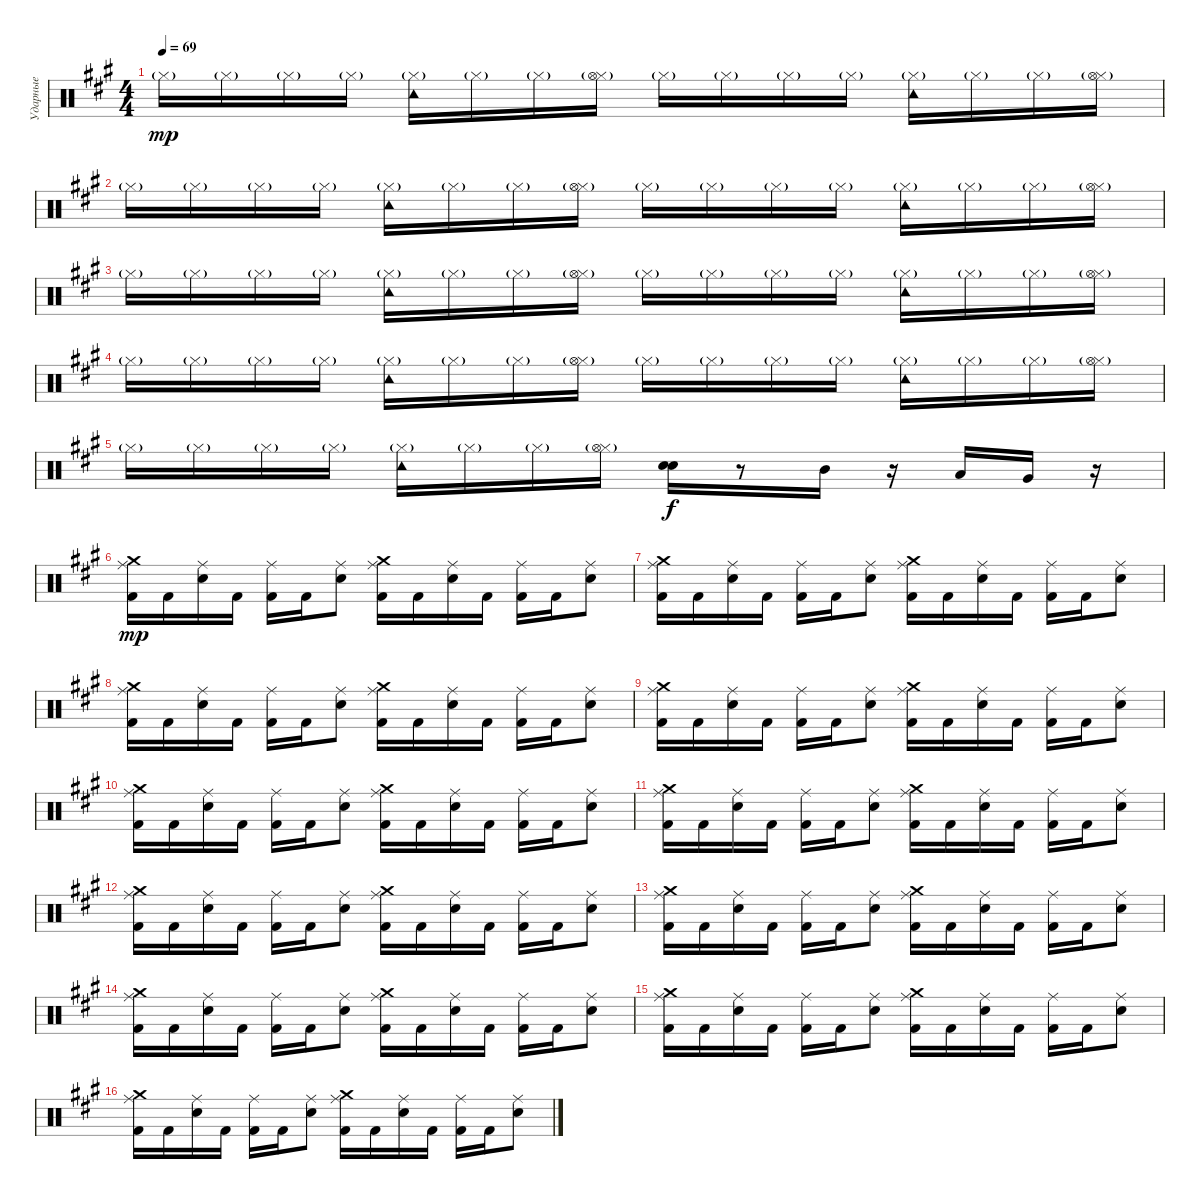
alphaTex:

\track ("Ударные" "Ударные") {instrument percussion}
\staff {score}
\articulation defaults
\ts (4 4)
\tempo 69
\clef neutral
\ks a "Hi-Hat (closed)"{g}.16{dy mp} "Hi-Hat (closed)"{g}.16 "Hi-Hat (closed)"{g}.16 "Hi-Hat (closed)"{g}.16
("Hi-Hat (closed)"{g} "Tambourine (hit)").16 "Hi-Hat (closed)"{g}.16 "Hi-Hat (closed)"{g}.16 ("Hi-Hat (closed)"{g} "Hi-Hat (open)"{g}).16 "Hi-Hat (closed)"{g}.16 "Hi-Hat (closed)"{g}.16 "Hi-Hat (closed)"{g}.16 "Hi-Hat (closed)"{g}.16 ("Hi-Hat (closed)"{g} "Tambourine (hit)").16 "Hi-Hat (closed)"{g}.16 "Hi-Hat (closed)"{g}.16 ("Hi-Hat (closed)"{g} "Hi-Hat (open)"{g}).16 |
"Hi-Hat (closed)"{g}.16 "Hi-Hat (closed)"{g}.16 "Hi-Hat (closed)"{g}.16 "Hi-Hat (closed)"{g}.16 ("Hi-Hat (closed)"{g} "Tambourine (hit)").16 "Hi-Hat (closed)"{g}.16 "Hi-Hat (closed)"{g}.16 ("Hi-Hat (closed)"{g} "Hi-Hat (open)"{g}).16 "Hi-Hat (closed)"{g}.16 "Hi-Hat (closed)"{g}.16 "Hi-Hat (closed)"{g}.16 "Hi-Hat (closed)"{g}.16 ("Hi-Hat (closed)"{g} "Tambourine (hit)").16 "Hi-Hat (closed)"{g}.16 "Hi-Hat (closed)"{g}.16 ("Hi-Hat (closed)"{g} "Hi-Hat (open)"{g}).16 |
"Hi-Hat (closed)"{g}.16 "Hi-Hat (closed)"{g}.16 "Hi-Hat (closed)"{g}.16 "Hi-Hat (closed)"{g}.16 ("Hi-Hat (closed)"{g} "Tambourine (hit)").16 "Hi-Hat (closed)"{g}.16 "Hi-Hat (closed)"{g}.16 ("Hi-Hat (closed)"{g} "Hi-Hat (open)"{g}).16 "Hi-Hat (closed)"{g}.16 "Hi-Hat (closed)"{g}.16 "Hi-Hat (closed)"{g}.16 "Hi-Hat (closed)"{g}.16 ("Hi-Hat (closed)"{g} "Tambourine (hit)").16 "Hi-Hat (closed)"{g}.16 "Hi-Hat (closed)"{g}.16 ("Hi-Hat (closed)"{g} "Hi-Hat (open)"{g}).16 |
"Hi-Hat (closed)"{g}.16 "Hi-Hat (closed)"{g}.16 "Hi-Hat (closed)"{g}.16 "Hi-Hat (closed)"{g}.16 ("Hi-Hat (closed)"{g} "Tambourine (hit)").16 "Hi-Hat (closed)"{g}.16 "Hi-Hat (closed)"{g}.16 ("Hi-Hat (closed)"{g} "Hi-Hat (open)"{g}).16 "Hi-Hat (closed)"{g}.16 "Hi-Hat (closed)"{g}.16 "Hi-Hat (closed)"{g}.16 "Hi-Hat (closed)"{g}.16 ("Hi-Hat (closed)"{g} "Tambourine (hit)").16 "Hi-Hat (closed)"{g}.16 "Hi-Hat (closed)"{g}.16 ("Hi-Hat (closed)"{g} "Hi-Hat (open)"{g}).16 |
"Hi-Hat (closed)"{g}.16 "Hi-Hat (closed)"{g}.16 "Hi-Hat (closed)"{g}.16 "Hi-Hat (closed)"{g}.16 ("Hi-Hat (closed)"{g} "Tambourine (hit)").16 "Hi-Hat (closed)"{g}.16 "Hi-Hat (closed)"{g}.16 ("Hi-Hat (closed)"{g} "Hi-Hat (open)"{g}).16 ("Electric Snare (hit)" "Electric Snare (hit)").16{dy f} r.8 "Mid Tom (hit)".16 r.16 "Low Tom (hit)".16 "Very Low Tom (hit)".16 r.16 |
("Kick (hit) 2" "Ride (middle)" "Crash medium (hit)").16{dy mp} "Kick (hit) 2".16 ("Electric Snare (hit)" "Ride (middle)").16 "Kick (hit) 2".16 ("Kick (hit) 2" "Ride (middle)").16 "Kick (hit) 2".16 ("Electric Snare (hit)" "Ride (middle)").8 ("Kick (hit) 2" "Ride (middle)" "Crash medium (hit)").16 "Kick (hit) 2".16 ("Electric Snare (hit)" "Ride (middle)").16 "Kick (hit) 2".16 ("Kick (hit) 2" "Ride (middle)").16 "Kick (hit) 2".16 ("Electric Snare (hit)" "Ride (middle)").8 |
("Kick (hit) 2" "Ride (middle)" "Crash medium (hit)").16 "Kick (hit) 2".16 ("Electric Snare (hit)" "Ride (middle)").16 "Kick (hit) 2".16 ("Kick (hit) 2" "Ride (middle)").16 "Kick (hit) 2".16 ("Electric Snare (hit)" "Ride (middle)").8 ("Kick (hit) 2" "Ride (middle)" "Crash medium (hit)").16 "Kick (hit) 2".16 ("Electric Snare (hit)" "Ride (middle)").16 "Kick (hit) 2".16 ("Kick (hit) 2" "Ride (middle)").16 "Kick (hit) 2".16 ("Electric Snare (hit)" "Ride (middle)").8 |
("Kick (hit) 2" "Ride (middle)" "Crash medium (hit)").16 "Kick (hit) 2".16 ("Electric Snare (hit)" "Ride (middle)").16 "Kick (hit) 2".16 ("Kick (hit) 2" "Ride (middle)").16 "Kick (hit) 2".16 ("Electric Snare (hit)" "Ride (middle)").8 ("Kick (hit) 2" "Ride (middle)" "Crash medium (hit)").16 "Kick (hit) 2".16 ("Electric Snare (hit)" "Ride (middle)").16 "Kick (hit) 2".16 ("Kick (hit) 2" "Ride (middle)").16 "Kick (hit) 2".16 ("Electric Snare (hit)" "Ride (middle)").8 |
("Kick (hit) 2" "Ride (middle)" "Crash medium (hit)").16 "Kick (hit) 2".16 ("Electric Snare (hit)" "Ride (middle)").16 "Kick (hit) 2".16 ("Kick (hit) 2" "Ride (middle)").16 "Kick (hit) 2".16 ("Electric Snare (hit)" "Ride (middle)").8 ("Kick (hit) 2" "Ride (middle)" "Crash medium (hit)").16 "Kick (hit) 2".16 ("Electric Snare (hit)" "Ride (middle)").16 "Kick (hit) 2".16 ("Kick (hit) 2" "Ride (middle)").16 "Kick (hit) 2".16 ("Electric Snare (hit)" "Ride (middle)").8 |
("Kick (hit) 2" "Ride (middle)" "Crash medium (hit)").16 "Kick (hit) 2".16 ("Electric Snare (hit)" "Ride (middle)").16 "Kick (hit) 2".16 ("Kick (hit) 2" "Ride (middle)").16 "Kick (hit) 2".16 ("Electric Snare (hit)" "Ride (middle)").8 ("Kick (hit) 2" "Ride (middle)" "Crash medium (hit)").16 "Kick (hit) 2".16 ("Electric Snare (hit)" "Ride (middle)").16 "Kick (hit) 2".16 ("Kick (hit) 2" "Ride (middle)").16 "Kick (hit) 2".16 ("Electric Snare (hit)" "Ride (middle)").8 |
("Kick (hit) 2" "Ride (middle)" "Crash medium (hit)").16 "Kick (hit) 2".16 ("Electric Snare (hit)" "Ride (middle)").16 "Kick (hit) 2".16 ("Kick (hit) 2" "Ride (middle)").16 "Kick (hit) 2".16 ("Electric Snare (hit)" "Ride (middle)").8 ("Kick (hit) 2" "Ride (middle)" "Crash medium (hit)").16 "Kick (hit) 2".16 ("Electric Snare (hit)" "Ride (middle)").16 "Kick (hit) 2".16 ("Kick (hit) 2" "Ride (middle)").16 "Kick (hit) 2".16 ("Electric Snare (hit)" "Ride (middle)").8 |
("Kick (hit) 2" "Ride (middle)" "Crash medium (hit)").16 "Kick (hit) 2".16 ("Electric Snare (hit)" "Ride (middle)").16 "Kick (hit) 2".16 ("Kick (hit) 2" "Ride (middle)").16 "Kick (hit) 2".16 ("Electric Snare (hit)" "Ride (middle)").8 ("Kick (hit) 2" "Ride (middle)" "Crash medium (hit)").16 "Kick (hit) 2".16 ("Electric Snare (hit)" "Ride (middle)").16 "Kick (hit) 2".16 ("Kick (hit) 2" "Ride (middle)").16 "Kick (hit) 2".16 ("Electric Snare (hit)" "Ride (middle)").8 |
("Kick (hit) 2" "Ride (middle)" "Crash medium (hit)").16 "Kick (hit) 2".16 ("Electric Snare (hit)" "Ride (middle)").16 "Kick (hit) 2".16 ("Kick (hit) 2" "Ride (middle)").16 "Kick (hit) 2".16 ("Electric Snare (hit)" "Ride (middle)").8 ("Kick (hit) 2" "Ride (middle)" "Crash medium (hit)").16 "Kick (hit) 2".16 ("Electric Snare (hit)" "Ride (middle)").16 "Kick (hit) 2".16 ("Kick (hit) 2" "Ride (middle)").16 "Kick (hit) 2".16 ("Electric Snare (hit)" "Ride (middle)").8 |
("Kick (hit) 2" "Ride (middle)" "Crash medium (hit)").16 "Kick (hit) 2".16 ("Electric Snare (hit)" "Ride (middle)").16 "Kick (hit) 2".16 ("Kick (hit) 2" "Ride (middle)").16 "Kick (hit) 2".16 ("Electric Snare (hit)" "Ride (middle)").8 ("Kick (hit) 2" "Ride (middle)" "Crash medium (hit)").16 "Kick (hit) 2".16 ("Electric Snare (hit)" "Ride (middle)").16 "Kick (hit) 2".16 ("Kick (hit) 2" "Ride (middle)").16 "Kick (hit) 2".16 ("Electric Snare (hit)" "Ride (middle)").8 |
("Kick (hit) 2" "Ride (middle)" "Crash medium (hit)").16 "Kick (hit) 2".16 ("Electric Snare (hit)" "Ride (middle)").16 "Kick (hit) 2".16 ("Kick (hit) 2" "Ride (middle)").16 "Kick (hit) 2".16 ("Electric Snare (hit)" "Ride (middle)").8 ("Kick (hit) 2" "Ride (middle)" "Crash medium (hit)").16 "Kick (hit) 2".16 ("Electric Snare (hit)" "Ride (middle)").16 "Kick (hit) 2".16 ("Kick (hit) 2" "Ride (middle)").16 "Kick (hit) 2".16 ("Electric Snare (hit)" "Ride (middle)").8 |
("Kick (hit) 2" "Ride (middle)" "Crash medium (hit)").16 "Kick (hit) 2".16 ("Electric Snare (hit)" "Ride (middle)").16 "Kick (hit) 2".16 ("Kick (hit) 2" "Ride (middle)").16 "Kick (hit) 2".16 ("Electric Snare (hit)" "Ride (middle)").8 ("Kick (hit) 2" "Ride (middle)" "Crash medium (hit)").16 "Kick (hit) 2".16 ("Electric Snare (hit)" "Ride (middle)").16 "Kick (hit) 2".16 ("Kick (hit) 2" "Ride (middle)").16 "Kick (hit) 2".16 ("Electric Snare (hit)" "Ride (middle)").8
